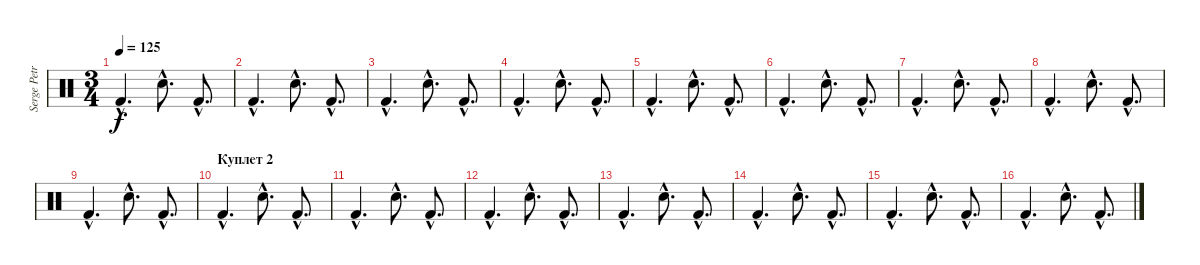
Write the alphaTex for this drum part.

\track ("Serge Petrone" "Serge Petr") {instrument percussion}
\staff {score}
\articulation defaults
\ts (3 4)
\tempo 125
\clef neutral
\ks c "Kick (hit) 2"{hac}.4{d dy f} "Snare (hit) 2"{hac}.8{d} "Kick (hit) 2"{hac}.8{d}
|
"Kick (hit) 2"{hac}.4{d} "Snare (hit) 2"{hac}.8{d} "Kick (hit) 2"{hac}.8{d} |
"Kick (hit) 2"{hac}.4{d} "Snare (hit) 2"{hac}.8{d} "Kick (hit) 2"{hac}.8{d} |
"Kick (hit) 2"{hac}.4{d} "Snare (hit) 2"{hac}.8{d} "Kick (hit) 2"{hac}.8{d} |
"Kick (hit) 2"{hac}.4{d} "Snare (hit) 2"{hac}.8{d} "Kick (hit) 2"{hac}.8{d} |
"Kick (hit) 2"{hac}.4{d} "Snare (hit) 2"{hac}.8{d} "Kick (hit) 2"{hac}.8{d} |
"Kick (hit) 2"{hac}.4{d} "Snare (hit) 2"{hac}.8{d} "Kick (hit) 2"{hac}.8{d} |
"Kick (hit) 2"{hac}.4{d} "Snare (hit) 2"{hac}.8{d} "Kick (hit) 2"{hac}.8{d} |
"Kick (hit) 2"{hac}.4{d} "Snare (hit) 2"{hac}.8{d} "Kick (hit) 2"{hac}.8{d} |
\section ("" "Куплет 2")
"Kick (hit) 2"{hac}.4{d} "Snare (hit) 2"{hac}.8{d} "Kick (hit) 2"{hac}.8{d} |
"Kick (hit) 2"{hac}.4{d} "Snare (hit) 2"{hac}.8{d} "Kick (hit) 2"{hac}.8{d} |
"Kick (hit) 2"{hac}.4{d} "Snare (hit) 2"{hac}.8{d} "Kick (hit) 2"{hac}.8{d} |
"Kick (hit) 2"{hac}.4{d} "Snare (hit) 2"{hac}.8{d} "Kick (hit) 2"{hac}.8{d} |
"Kick (hit) 2"{hac}.4{d} "Snare (hit) 2"{hac}.8{d} "Kick (hit) 2"{hac}.8{d} |
"Kick (hit) 2"{hac}.4{d} "Snare (hit) 2"{hac}.8{d} "Kick (hit) 2"{hac}.8{d} |
"Kick (hit) 2"{hac}.4{d} "Snare (hit) 2"{hac}.8{d} "Kick (hit) 2"{hac}.8{d}
